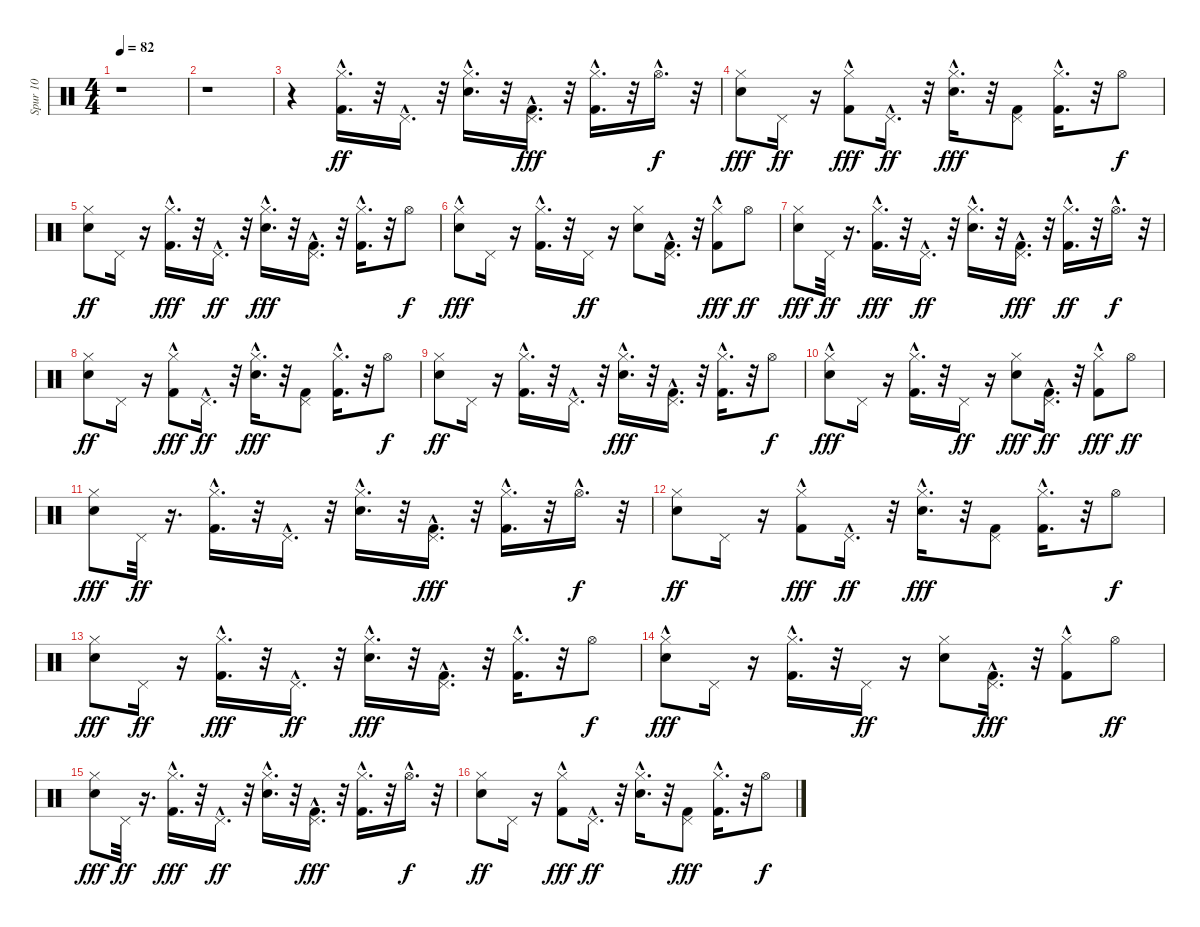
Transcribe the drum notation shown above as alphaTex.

\track ("Spur 10" "Spur 10") {instrument percussion}
\staff {score}
\articulation defaults
\ts (4 4)
\tempo 82
\clef neutral
\ks c
r.1{dy ff} |
r.1 |
r.4 ("Kick (hit) 2"{hac} "Hi-Hat (closed)"{hac}).16{d} r.32 "Pedal Hi-Hat (hit)"{hac}.16{d} r.32 ("Electric Snare (hit)" "Hi-Hat (closed)"{hac}).16{d} r.32 ("Pedal Hi-Hat (hit)"{hac} "Kick (hit) 2").16{d dy fff} r.32 ("Hi-Hat (closed)"{hac} "Kick (hit) 2"{hac}).16{d} r.32 "Hi-Hat (open)"{hac}.16{d dy f} r.32 |
("Hi-Hat (closed)" "Electric Snare (hit)").8{dy fff} "Pedal Hi-Hat (hit)".16{dy ff} r.16 ("Kick (hit) 2"{hac} "Hi-Hat (closed)").8{dy fff} "Pedal Hi-Hat (hit)"{hac}.16{d dy ff} r.32 ("Hi-Hat (closed)"{hac} "Electric Snare (hit)").16{d dy fff} r.32 ("Kick (hit) 2" "Pedal Hi-Hat (hit)").8 ("Hi-Hat (closed)"{hac} "Kick (hit) 2"{hac}).16{d} r.32 "Hi-Hat (open)".8{dy f} |
("Electric Snare (hit)" "Hi-Hat (closed)").8{dy ff} "Pedal Hi-Hat (hit)".16 r.16 ("Hi-Hat (closed)"{hac} "Kick (hit) 2"{hac}).16{d dy fff} r.32 "Pedal Hi-Hat (hit)"{hac}.16{d dy ff} r.32 ("Hi-Hat (closed)"{hac} "Electric Snare (hit)").16{d dy fff} r.32 ("Kick (hit) 2" "Pedal Hi-Hat (hit)"{hac}).16{d} r.32 ("Hi-Hat (closed)"{hac} "Kick (hit) 2"{hac}).16{d} r.32 "Hi-Hat (open)".8{dy f} |
("Hi-Hat (closed)" "Electric Snare (hit)"{hac}).8{dy fff} "Pedal Hi-Hat (hit)".16 r.16 ("Kick (hit) 2"{hac} "Hi-Hat (closed)"{hac}).16{d} r.32 "Pedal Hi-Hat (hit)".16{dy ff} r.16 ("Electric Snare (hit)" "Hi-Hat (closed)").8 ("Kick (hit) 2" "Pedal Hi-Hat (hit)"{hac}).16{d} r.32 ("Hi-Hat (closed)" "Kick (hit) 2"{hac}).8{dy fff} "Hi-Hat (open)".8{dy ff} |
("Hi-Hat (closed)" "Electric Snare (hit)").8{dy fff} "Pedal Hi-Hat (hit)".32{dy ff} r.16{d} ("Hi-Hat (closed)"{hac} "Kick (hit) 2"{hac}).16{d dy fff} r.32 "Pedal Hi-Hat (hit)"{hac}.16{d dy ff} r.32 ("Electric Snare (hit)" "Hi-Hat (closed)"{hac}).16{d} r.32 ("Pedal Hi-Hat (hit)"{hac} "Kick (hit) 2").16{d dy fff} r.32 ("Kick (hit) 2"{hac} "Hi-Hat (closed)"{hac}).16{d dy ff} r.32 "Hi-Hat (open)"{hac}.16{d dy f} r.32 |
("Electric Snare (hit)" "Hi-Hat (closed)").8{dy ff} "Pedal Hi-Hat (hit)".16 r.16 ("Kick (hit) 2"{hac} "Hi-Hat (closed)").8{dy fff} "Pedal Hi-Hat (hit)"{hac}.16{d dy ff} r.32 ("Hi-Hat (closed)"{hac} "Electric Snare (hit)").16{d dy fff} r.32 ("Kick (hit) 2" "Pedal Hi-Hat (hit)").8 ("Hi-Hat (closed)"{hac} "Kick (hit) 2"{hac}).16{d} r.32 "Hi-Hat (open)".8{dy f} |
("Electric Snare (hit)" "Hi-Hat (closed)").8{dy ff} "Pedal Hi-Hat (hit)".16 r.16 ("Kick (hit) 2"{hac} "Hi-Hat (closed)"{hac}).16{d} r.32 "Pedal Hi-Hat (hit)"{hac}.16{d} r.32 ("Hi-Hat (closed)"{hac} "Electric Snare (hit)").16{d dy fff} r.32 ("Kick (hit) 2" "Pedal Hi-Hat (hit)"{hac}).16{d} r.32 ("Hi-Hat (closed)"{hac} "Kick (hit) 2"{hac}).16{d} r.32 "Hi-Hat (open)".8{dy f} |
("Hi-Hat (closed)" "Electric Snare (hit)"{hac}).8{dy fff} "Pedal Hi-Hat (hit)".16 r.16 ("Hi-Hat (closed)"{hac} "Kick (hit) 2"{hac}).16{d} r.32 "Pedal Hi-Hat (hit)".16{dy ff} r.16 ("Hi-Hat (closed)" "Electric Snare (hit)").8{dy fff} ("Kick (hit) 2" "Pedal Hi-Hat (hit)"{hac}).16{d dy ff} r.32 ("Hi-Hat (closed)" "Kick (hit) 2"{hac}).8{dy fff} "Hi-Hat (open)".8{dy ff} |
("Electric Snare (hit)" "Hi-Hat (closed)").8{dy fff} "Pedal Hi-Hat (hit)".32{dy ff} r.16{d} ("Kick (hit) 2"{hac} "Hi-Hat (closed)"{hac}).16{d} r.32 "Pedal Hi-Hat (hit)"{hac}.16{d} r.32 ("Electric Snare (hit)" "Hi-Hat (closed)"{hac}).16{d} r.32 ("Pedal Hi-Hat (hit)"{hac} "Kick (hit) 2").16{d dy fff} r.32 ("Hi-Hat (closed)"{hac} "Kick (hit) 2"{hac}).16{d} r.32 "Hi-Hat (open)"{hac}.16{d dy f} r.32 |
("Electric Snare (hit)" "Hi-Hat (closed)").8{dy ff} "Pedal Hi-Hat (hit)".16 r.16 ("Hi-Hat (closed)" "Kick (hit) 2"{hac}).8{dy fff} "Pedal Hi-Hat (hit)"{hac}.16{d dy ff} r.32 ("Hi-Hat (closed)"{hac} "Electric Snare (hit)").16{d dy fff} r.32 ("Pedal Hi-Hat (hit)" "Kick (hit) 2").8 ("Hi-Hat (closed)"{hac} "Kick (hit) 2"{hac}).16{d} r.32 "Hi-Hat (open)".8{dy f} |
("Hi-Hat (closed)" "Electric Snare (hit)").8{dy fff} "Pedal Hi-Hat (hit)".16{dy ff} r.16 ("Hi-Hat (closed)"{hac} "Kick (hit) 2"{hac}).16{d dy fff} r.32 "Pedal Hi-Hat (hit)"{hac}.16{d dy ff} r.32 ("Hi-Hat (closed)"{hac} "Electric Snare (hit)").16{d dy fff} r.32 ("Pedal Hi-Hat (hit)"{hac} "Kick (hit) 2").16{d} r.32 ("Hi-Hat (closed)"{hac} "Kick (hit) 2"{hac}).16{d} r.32 "Hi-Hat (open)".8{dy f} |
("Electric Snare (hit)"{hac} "Hi-Hat (closed)").8{dy fff} "Pedal Hi-Hat (hit)".16 r.16 ("Hi-Hat (closed)"{hac} "Kick (hit) 2"{hac}).16{d} r.32 "Pedal Hi-Hat (hit)".16{dy ff} r.16 ("Electric Snare (hit)" "Hi-Hat (closed)").8 ("Pedal Hi-Hat (hit)"{hac} "Kick (hit) 2").16{d dy fff} r.32 ("Hi-Hat (closed)" "Kick (hit) 2"{hac}).8 "Hi-Hat (open)".8{dy ff} |
("Electric Snare (hit)" "Hi-Hat (closed)").8{dy fff} "Pedal Hi-Hat (hit)".32{dy ff} r.16{d} ("Hi-Hat (closed)"{hac} "Kick (hit) 2"{hac}).16{d dy fff} r.32 "Pedal Hi-Hat (hit)"{hac}.16{d dy ff} r.32 ("Electric Snare (hit)" "Hi-Hat (closed)"{hac}).16{d} r.32 ("Pedal Hi-Hat (hit)"{hac} "Kick (hit) 2").16{d dy fff} r.32 ("Hi-Hat (closed)"{hac} "Kick (hit) 2"{hac}).16{d} r.32 "Hi-Hat (open)"{hac}.16{d dy f} r.32 |
("Electric Snare (hit)" "Hi-Hat (closed)").8{dy ff} "Pedal Hi-Hat (hit)".16 r.16 ("Kick (hit) 2"{hac} "Hi-Hat (closed)").8{dy fff} "Pedal Hi-Hat (hit)"{hac}.16{d dy ff} r.32 ("Electric Snare (hit)" "Hi-Hat (closed)"{hac}).16{d} r.32 ("Kick (hit) 2" "Pedal Hi-Hat (hit)").8{dy fff} ("Hi-Hat (closed)"{hac} "Kick (hit) 2"{hac}).16{d} r.32 "Hi-Hat (open)".8{dy f}
